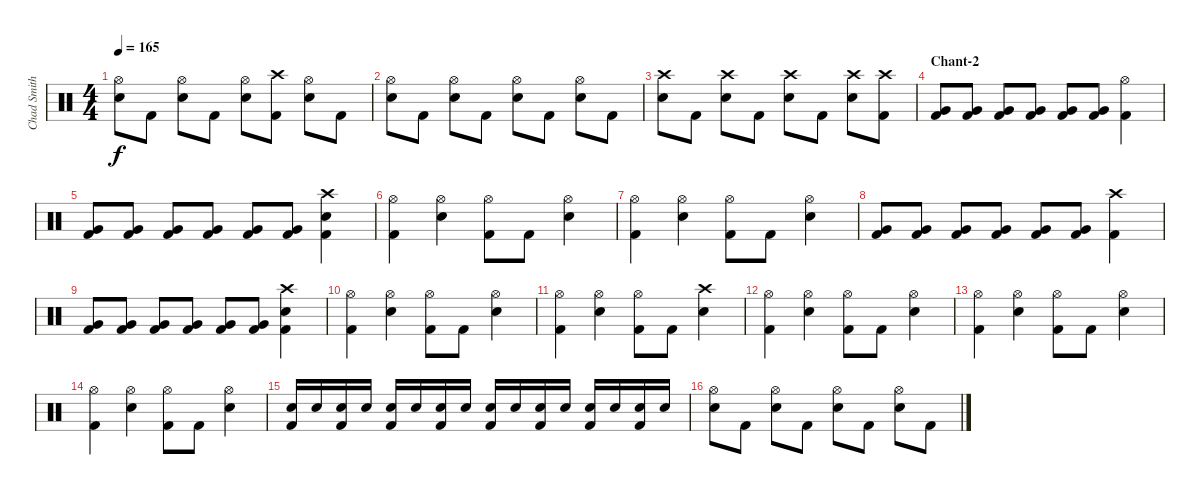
\track ("Chad Smith" "Chad Smith") {instrument percussion}
\staff {score}
\articulation defaults
\ts (4 4)
\tempo 165
\clef neutral
\ks c
("Hi-Hat (open)" "Snare (hit) 2").8{dy f} "Kick (hit) 2".8 ("Hi-Hat (open)" "Snare (hit) 2").8 "Kick (hit) 2".8 ("Hi-Hat (open)" "Snare (hit) 2").8 ("Crash high (hit)" "Kick (hit) 2").8 ("Hi-Hat (open)" "Snare (hit) 2").8 "Kick (hit) 2".8 |
("Hi-Hat (open)" "Snare (hit) 2").8 "Kick (hit) 2".8 ("Hi-Hat (open)" "Snare (hit) 2").8 "Kick (hit) 2".8 ("Hi-Hat (open)" "Snare (hit) 2").8 "Kick (hit) 2".8 ("Hi-Hat (open)" "Snare (hit) 2").8 "Kick (hit) 2".8 |
("Crash high (hit)" "Snare (hit) 2").8 "Kick (hit) 2".8 ("Crash high (hit)" "Snare (hit) 2").8 "Kick (hit) 2".8 ("Crash high (hit)" "Snare (hit) 2").8 "Kick (hit) 2".8 ("Crash high (hit)" "Snare (hit) 2").8 ("Crash high (hit)" "Kick (hit) 2").8 |
\section ("" "Chant-2")
("Kick (hit) 2" "Very Low Tom (hit)").8 ("Kick (hit) 2" "Very Low Tom (hit)").8 ("Kick (hit) 2" "Very Low Tom (hit)").8 ("Kick (hit) 2" "Very Low Tom (hit)").8 ("Kick (hit) 2" "Very Low Tom (hit)").8 ("Kick (hit) 2" "Very Low Tom (hit)").8 ("Hi-Hat (open)" "Kick (hit) 2").4 |
("Kick (hit) 2" "Very Low Tom (hit)").8 ("Kick (hit) 2" "Very Low Tom (hit)").8 ("Kick (hit) 2" "Very Low Tom (hit)").8 ("Kick (hit) 2" "Very Low Tom (hit)").8 ("Kick (hit) 2" "Very Low Tom (hit)").8 ("Kick (hit) 2" "Very Low Tom (hit)").8 ("Crash high (hit)" "Kick (hit) 2" "Snare (hit) 2").4 |
("Hi-Hat (open)" "Kick (hit) 2").4 ("Hi-Hat (open)" "Snare (hit) 2").4 ("Hi-Hat (open)" "Kick (hit) 2").8 "Kick (hit) 2".8 ("Hi-Hat (open)" "Snare (hit) 2").4 |
("Hi-Hat (open)" "Kick (hit) 2").4 ("Hi-Hat (open)" "Snare (hit) 2").4 ("Hi-Hat (open)" "Kick (hit) 2").8 "Kick (hit) 2".8 ("Hi-Hat (open)" "Snare (hit) 2").4 |
("Kick (hit) 2" "Very Low Tom (hit)").8 ("Kick (hit) 2" "Very Low Tom (hit)").8 ("Kick (hit) 2" "Very Low Tom (hit)").8 ("Kick (hit) 2" "Very Low Tom (hit)").8 ("Kick (hit) 2" "Very Low Tom (hit)").8 ("Kick (hit) 2" "Very Low Tom (hit)").8 ("Crash high (hit)" "Kick (hit) 2").4 |
("Kick (hit) 2" "Very Low Tom (hit)").8 ("Kick (hit) 2" "Very Low Tom (hit)").8 ("Kick (hit) 2" "Very Low Tom (hit)").8 ("Kick (hit) 2" "Very Low Tom (hit)").8 ("Kick (hit) 2" "Very Low Tom (hit)").8 ("Kick (hit) 2" "Very Low Tom (hit)").8 ("Crash high (hit)" "Kick (hit) 2" "Snare (hit) 2").4 |
("Hi-Hat (open)" "Kick (hit) 2").4 ("Hi-Hat (open)" "Snare (hit) 2").4 ("Hi-Hat (open)" "Kick (hit) 2").8 "Kick (hit) 2".8 ("Hi-Hat (open)" "Snare (hit) 2").4 |
("Hi-Hat (open)" "Kick (hit) 2").4 ("Hi-Hat (open)" "Snare (hit) 2").4 ("Hi-Hat (open)" "Kick (hit) 2").8 "Kick (hit) 2".8 ("Crash high (hit)" "Snare (hit) 2").4 |
("Hi-Hat (open)" "Kick (hit) 2").4 ("Hi-Hat (open)" "Snare (hit) 2").4 ("Hi-Hat (open)" "Kick (hit) 2").8 "Kick (hit) 2".8 ("Hi-Hat (open)" "Snare (hit) 2").4 |
("Hi-Hat (open)" "Kick (hit) 2").4 ("Hi-Hat (open)" "Snare (hit) 2").4 ("Hi-Hat (open)" "Kick (hit) 2").8 "Kick (hit) 2".8 ("Hi-Hat (open)" "Snare (hit) 2").4 |
("Hi-Hat (open)" "Kick (hit) 2").4 ("Hi-Hat (open)" "Snare (hit) 2").4 ("Hi-Hat (open)" "Kick (hit) 2").8 "Kick (hit) 2".8 ("Hi-Hat (open)" "Snare (hit) 2").4 |
("Snare (hit) 2" "Kick (hit) 2").16 "Snare (hit) 2".16 ("Snare (hit) 2" "Kick (hit) 2").16 "Snare (hit) 2".16 ("Snare (hit) 2" "Kick (hit) 2").16 "Snare (hit) 2".16 ("Snare (hit) 2" "Kick (hit) 2").16 "Snare (hit) 2".16 ("Snare (hit) 2" "Kick (hit) 2").16 "Snare (hit) 2".16 ("Snare (hit) 2" "Kick (hit) 2").16 "Snare (hit) 2".16 ("Snare (hit) 2" "Kick (hit) 2").16 "Snare (hit) 2".16 ("Snare (hit) 2" "Kick (hit) 2").16 "Snare (hit) 2".16 |
("Hi-Hat (open)" "Snare (hit) 2").8 "Kick (hit) 2".8 ("Hi-Hat (open)" "Snare (hit) 2").8 "Kick (hit) 2".8 ("Hi-Hat (open)" "Snare (hit) 2").8 "Kick (hit) 2".8 ("Hi-Hat (open)" "Snare (hit) 2").8 "Kick (hit) 2".8
